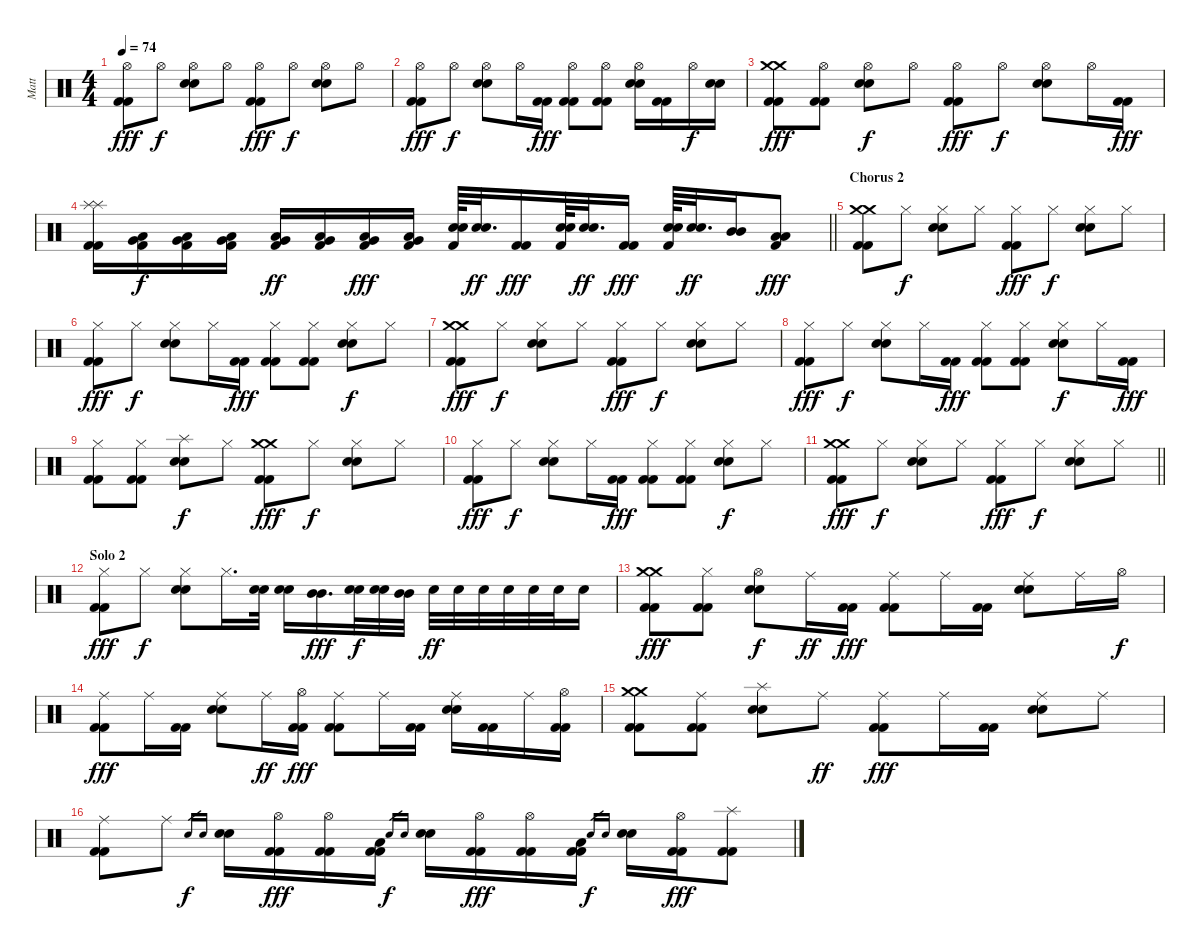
\track ("Matt" "Matt") {instrument percussion}
\staff {score}
\articulation defaults
\ts (4 4)
\tempo 74
\clef neutral
\ks c
("Hi-Hat (open)" "Kick (hit) 2" "Kick (hit) 2").8{dy fff} "Hi-Hat (open)".8{dy f} ("Hi-Hat (open)" "Electric Snare (hit)" "Electric Snare (hit)").8 "Hi-Hat (open)".8 ("Hi-Hat (open)" "Kick (hit) 2" "Kick (hit) 2").8{dy fff} "Hi-Hat (open)".8{dy f} ("Hi-Hat (open)" "Electric Snare (hit)" "Electric Snare (hit)").8 "Hi-Hat (open)".8 |
("Hi-Hat (open)" "Kick (hit) 2" "Kick (hit) 2").8{dy fff} "Hi-Hat (open)".8{dy f} ("Hi-Hat (open)" "Electric Snare (hit)" "Electric Snare (hit)").8 "Hi-Hat (open)".16 ("Kick (hit) 2" "Kick (hit) 2").16{dy fff} ("Hi-Hat (open)" "Kick (hit) 2" "Kick (hit) 2").8 ("Hi-Hat (open)" "Kick (hit) 2" "Kick (hit) 2").8 ("Hi-Hat (open)" "Electric Snare (hit)" "Electric Snare (hit)").16 ("Kick (hit) 2" "Kick (hit) 2").16 "Hi-Hat (open)".16{dy f} ("Electric Snare (hit)" "Electric Snare (hit)").16 |
("Crash medium (hit)" "Crash medium (hit)" "Kick (hit) 2" "Kick (hit) 2").8{dy fff} ("Hi-Hat (open)" "Kick (hit) 2" "Kick (hit) 2").8 ("Hi-Hat (open)" "Electric Snare (hit)" "Electric Snare (hit)").8{dy f} "Hi-Hat (open)".8 ("Hi-Hat (open)" "Kick (hit) 2" "Kick (hit) 2").8{dy fff} "Hi-Hat (open)".8{dy f} ("Hi-Hat (open)" "Electric Snare (hit)" "Electric Snare (hit)").8 "Hi-Hat (open)".16 ("Kick (hit) 2" "Kick (hit) 2").16{dy fff} |
\barLineRight lightlight
("Splash (hit)" "Splash (hit)" "Kick (hit) 2" "Kick (hit) 2").16 ("Low Tom (hit)" "Very Low Tom (hit)" "Kick (hit) 2").16{dy f} ("Low Tom (hit)" "Very Low Tom (hit)" "Kick (hit) 2").16 ("Low Tom (hit)" "Very Low Tom (hit)" "Kick (hit) 2").16 ("Low Tom (hit)" "Very Low Tom (hit)" "Kick (hit) 2").16{dy ff} ("Low Tom (hit)" "Very Low Tom (hit)" "Kick (hit) 2").16 ("Low Tom (hit)" "Very Low Tom (hit)" "Kick (hit) 2").16{dy fff} ("Low Tom (hit)" "Very Low Tom (hit)" "Kick (hit) 2").16 ("Electric Snare (hit)" "Electric Snare (hit)" "Kick (hit) 2").64 ("Electric Snare (hit)" "Electric Snare (hit)").32{d dy ff} ("Kick (hit) 2" "Kick (hit) 2").16{dy fff} ("Electric Snare (hit)" "Electric Snare (hit)" "Kick (hit) 2").64 ("Electric Snare (hit)" "Electric Snare (hit)").32{d dy ff} ("Kick (hit) 2" "Kick (hit) 2").16{dy fff} ("Electric Snare (hit)" "Electric Snare (hit)" "Kick (hit) 2").64 ("Electric Snare (hit)" "Electric Snare (hit)").32{d dy ff} ("Mid Tom (hit)" "Mid Tom (hit)").16 ("Low Tom (hit)" "Low Tom (hit)" "Kick (hit) 2").8{dy fff} |
\section ("" "Chorus 2")
("Crash medium (hit)" "Crash medium (hit)" "Kick (hit) 2" "Kick (hit) 2").8 "Hi-Hat (closed)".8{dy f} ("Hi-Hat (closed)" "Electric Snare (hit)" "Electric Snare (hit)").8 "Hi-Hat (closed)".8 ("Hi-Hat (closed)" "Kick (hit) 2" "Kick (hit) 2").8{dy fff} "Hi-Hat (closed)".8{dy f} ("Hi-Hat (closed)" "Electric Snare (hit)" "Electric Snare (hit)").8 "Hi-Hat (closed)".8 |
("Hi-Hat (closed)" "Kick (hit) 2" "Kick (hit) 2").8{dy fff} "Hi-Hat (closed)".8{dy f} ("Hi-Hat (closed)" "Electric Snare (hit)" "Electric Snare (hit)").8 "Hi-Hat (closed)".16 ("Kick (hit) 2" "Kick (hit) 2").16{dy fff} ("Hi-Hat (closed)" "Kick (hit) 2" "Kick (hit) 2").8 ("Hi-Hat (closed)" "Kick (hit) 2" "Kick (hit) 2").8 ("Hi-Hat (closed)" "Electric Snare (hit)" "Electric Snare (hit)").8{dy f} "Hi-Hat (closed)".8 |
("Crash medium (hit)" "Crash medium (hit)" "Kick (hit) 2" "Kick (hit) 2").8{dy fff} "Hi-Hat (closed)".8{dy f} ("Hi-Hat (closed)" "Electric Snare (hit)" "Electric Snare (hit)").8 "Hi-Hat (closed)".8 ("Hi-Hat (closed)" "Kick (hit) 2" "Kick (hit) 2").8{dy fff} "Hi-Hat (closed)".8{dy f} ("Hi-Hat (closed)" "Electric Snare (hit)" "Electric Snare (hit)").8 "Hi-Hat (closed)".8 |
("Hi-Hat (closed)" "Kick (hit) 2" "Kick (hit) 2").8{dy fff} "Hi-Hat (closed)".8{dy f} ("Hi-Hat (closed)" "Electric Snare (hit)" "Electric Snare (hit)").8 "Hi-Hat (closed)".16 ("Kick (hit) 2" "Kick (hit) 2").16{dy fff} ("Hi-Hat (closed)" "Kick (hit) 2" "Kick (hit) 2").8 ("Hi-Hat (closed)" "Kick (hit) 2" "Kick (hit) 2").8 ("Hi-Hat (closed)" "Electric Snare (hit)" "Electric Snare (hit)").8{dy f} "Hi-Hat (closed)".16 ("Kick (hit) 2" "Kick (hit) 2").16{dy fff} |
("Hi-Hat (closed)" "Kick (hit) 2" "Kick (hit) 2").8 ("Hi-Hat (closed)" "Kick (hit) 2" "Kick (hit) 2").8 ("Splash (hit)" "Electric Snare (hit)" "Electric Snare (hit)").8{dy f} "Hi-Hat (closed)".8 ("Crash medium (hit)" "Crash medium (hit)" "Kick (hit) 2" "Kick (hit) 2").8{dy fff} "Hi-Hat (closed)".8{dy f} ("Hi-Hat (closed)" "Electric Snare (hit)" "Electric Snare (hit)").8 "Hi-Hat (closed)".8 |
("Hi-Hat (closed)" "Kick (hit) 2" "Kick (hit) 2").8{dy fff} "Hi-Hat (closed)".8{dy f} ("Hi-Hat (closed)" "Electric Snare (hit)" "Electric Snare (hit)").8 "Hi-Hat (closed)".16 ("Kick (hit) 2" "Kick (hit) 2").16{dy fff} ("Hi-Hat (closed)" "Kick (hit) 2" "Kick (hit) 2").8 ("Hi-Hat (closed)" "Kick (hit) 2" "Kick (hit) 2").8 ("Hi-Hat (closed)" "Electric Snare (hit)" "Electric Snare (hit)").8{dy f} "Hi-Hat (closed)".8 |
\barLineRight lightlight
("Crash medium (hit)" "Crash medium (hit)" "Kick (hit) 2" "Kick (hit) 2").8{dy fff} "Hi-Hat (closed)".8{dy f} ("Hi-Hat (closed)" "Electric Snare (hit)" "Electric Snare (hit)").8 "Hi-Hat (closed)".8 ("Hi-Hat (closed)" "Kick (hit) 2" "Kick (hit) 2").8{dy fff} "Hi-Hat (closed)".8{dy f} ("Hi-Hat (closed)" "Electric Snare (hit)" "Electric Snare (hit)").8 "Hi-Hat (closed)".8 |
\section ("" "Solo 2")
("Hi-Hat (closed)" "Kick (hit) 2" "Kick (hit) 2").8{dy fff} "Hi-Hat (closed)".8{dy f} ("Hi-Hat (closed)" "Electric Snare (hit)" "Electric Snare (hit)").8 "Hi-Hat (closed)".16{d} ("Electric Snare (hit)" "Electric Snare (hit)").32 ("Electric Snare (hit)" "Electric Snare (hit)").16 ("Mid Tom (hit)" "Mid Tom (hit)").16{d dy fff} ("Electric Snare (hit)" "Electric Snare (hit)").32{dy f} ("Electric Snare (hit)" "Electric Snare (hit)").32 ("Mid Tom (hit)" "Mid Tom (hit)").32 "Electric Snare (hit)".32{dy ff} "Electric Snare (hit)".32 "Electric Snare (hit)".32 "Electric Snare (hit)".32 "Electric Snare (hit)".32 "Electric Snare (hit)".32 "Electric Snare (hit)".16 |
("Crash medium (hit)" "Crash medium (hit)" "Kick (hit) 2" "Kick (hit) 2").8{dy fff} ("Hi-Hat (closed)" "Kick (hit) 2" "Kick (hit) 2").8 ("Hi-Hat (open)" "Electric Snare (hit)" "Electric Snare (hit)").8{dy f} "Ride (middle)".16{dy ff} ("Kick (hit) 2" "Kick (hit) 2").16{dy fff} ("Ride (middle)" "Kick (hit) 2" "Kick (hit) 2").8 "Ride (middle)".16 ("Kick (hit) 2" "Kick (hit) 2").16 ("Ride (middle)" "Electric Snare (hit)" "Electric Snare (hit)").8 "Ride (middle)".16 "Hi-Hat (open)".16{dy f} |
("Ride (middle)" "Kick (hit) 2" "Kick (hit) 2").8{dy fff} "Ride (middle)".16 ("Kick (hit) 2" "Kick (hit) 2").16 ("Ride (middle)" "Electric Snare (hit)" "Electric Snare (hit)").8 "Ride (middle)".16{dy ff} ("Hi-Hat (open)" "Kick (hit) 2" "Kick (hit) 2").16{dy fff} ("Ride (middle)" "Kick (hit) 2" "Kick (hit) 2").8 "Ride (middle)".16 ("Kick (hit) 2" "Kick (hit) 2").16 ("Ride (middle)" "Electric Snare (hit)" "Electric Snare (hit)").16 ("Kick (hit) 2" "Kick (hit) 2").16 "Ride (middle)".16 ("Hi-Hat (open)" "Kick (hit) 2" "Kick (hit) 2").16 |
("Crash medium (hit)" "Crash medium (hit)" "Kick (hit) 2" "Kick (hit) 2").8 ("Ride (middle)" "Kick (hit) 2" "Kick (hit) 2").8 ("Splash (hit)" "Electric Snare (hit)" "Electric Snare (hit)").8 "Ride (middle)".8{dy ff} ("Ride (middle)" "Kick (hit) 2" "Kick (hit) 2").8{dy fff} "Ride (middle)".16 ("Kick (hit) 2" "Kick (hit) 2").16 ("Ride (middle)" "Electric Snare (hit)" "Electric Snare (hit)").8 "Ride (middle)".8 |
("Ride (middle)" "Kick (hit) 2" "Kick (hit) 2").8 "Ride (middle)".8 "Electric Snare (hit)".16{gr dy f} "Electric Snare (hit)".16{gr} ("Electric Snare (hit)" "Electric Snare (hit)").16 ("Hi-Hat (open)" "Kick (hit) 2" "Kick (hit) 2").16{dy fff} ("Hi-Hat (open)" "Kick (hit) 2" "Kick (hit) 2").16 ("Low Tom (hit)" "Kick (hit) 2" "Kick (hit) 2").16 "Electric Snare (hit)".16{gr dy f} "Electric Snare (hit)".16{gr} ("Electric Snare (hit)" "Electric Snare (hit)").16 ("Hi-Hat (open)" "Kick (hit) 2" "Kick (hit) 2").16{dy fff} ("Hi-Hat (open)" "Kick (hit) 2" "Kick (hit) 2").16 ("Low Tom (hit)" "Kick (hit) 2" "Kick (hit) 2").16 "Electric Snare (hit)".16{gr dy f} "Electric Snare (hit)".16{gr} ("Electric Snare (hit)" "Electric Snare (hit)").16 ("Hi-Hat (open)" "Kick (hit) 2" "Kick (hit) 2").16{dy fff} ("Splash (hit)" "Kick (hit) 2" "Kick (hit) 2").8
